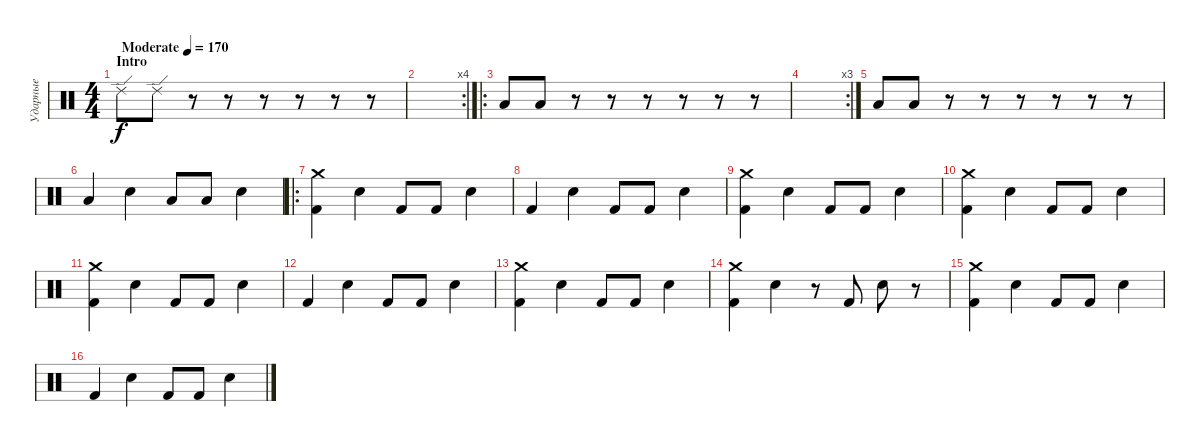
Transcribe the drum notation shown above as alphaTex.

\track ("Ударные" "Ударные") {instrument percussion}
\staff {score}
\articulation defaults
\ts (4 4)
\section ("" "Intro")
\tempo (170 "Moderate")
\clef neutral
\ks c "Ride (edge) 2".8{dy f} "Ride (edge) 2".8
r.8 r.8 r.8 r.8 r.8 r.8 |
\rc 4
|
\ro "Low Floor Tom (hit)".8 "Low Floor Tom (hit)".8
r.8 r.8 r.8 r.8 r.8 r.8 |
\rc 3
|
"Low Floor Tom (hit)".8 "Low Floor Tom (hit)".8 r.8 r.8 r.8 r.8 r.8 r.8 |
"Low Floor Tom (hit)".4 "Snare (hit) 2".4 "Low Floor Tom (hit)".8 "Low Floor Tom (hit)".8 "Snare (hit) 2".4 |
\ro
("Kick (hit) 2" "Crash medium (hit)").4 "Snare (hit) 2".4 "Kick (hit) 2".8 "Kick (hit) 2".8 "Snare (hit) 2".4 |
"Kick (hit) 2".4 "Snare (hit) 2".4 "Kick (hit) 2".8 "Kick (hit) 2".8 "Snare (hit) 2".4 |
("Kick (hit) 2" "Crash medium (hit)").4 "Snare (hit) 2".4 "Kick (hit) 2".8 "Kick (hit) 2".8 "Snare (hit) 2".4 |
("Kick (hit) 2" "Crash medium (hit)").4 "Snare (hit) 2".4 "Kick (hit) 2".8 "Kick (hit) 2".8 "Snare (hit) 2".4 |
("Kick (hit) 2" "Crash medium (hit)").4 "Snare (hit) 2".4 "Kick (hit) 2".8 "Kick (hit) 2".8 "Snare (hit) 2".4 |
"Kick (hit) 2".4 "Snare (hit) 2".4 "Kick (hit) 2".8 "Kick (hit) 2".8 "Snare (hit) 2".4 |
("Kick (hit) 2" "Crash medium (hit)").4 "Snare (hit) 2".4 "Kick (hit) 2".8 "Kick (hit) 2".8 "Snare (hit) 2".4 |
("Kick (hit) 2" "Crash medium (hit)").4 "Snare (hit) 2".4 r.8 "Kick (hit) 2".8 "Snare (hit) 2".8 r.8 |
("Kick (hit) 2" "Crash medium (hit)").4 "Snare (hit) 2".4 "Kick (hit) 2".8 "Kick (hit) 2".8 "Snare (hit) 2".4 |
"Kick (hit) 2".4 "Snare (hit) 2".4 "Kick (hit) 2".8 "Kick (hit) 2".8 "Snare (hit) 2".4
